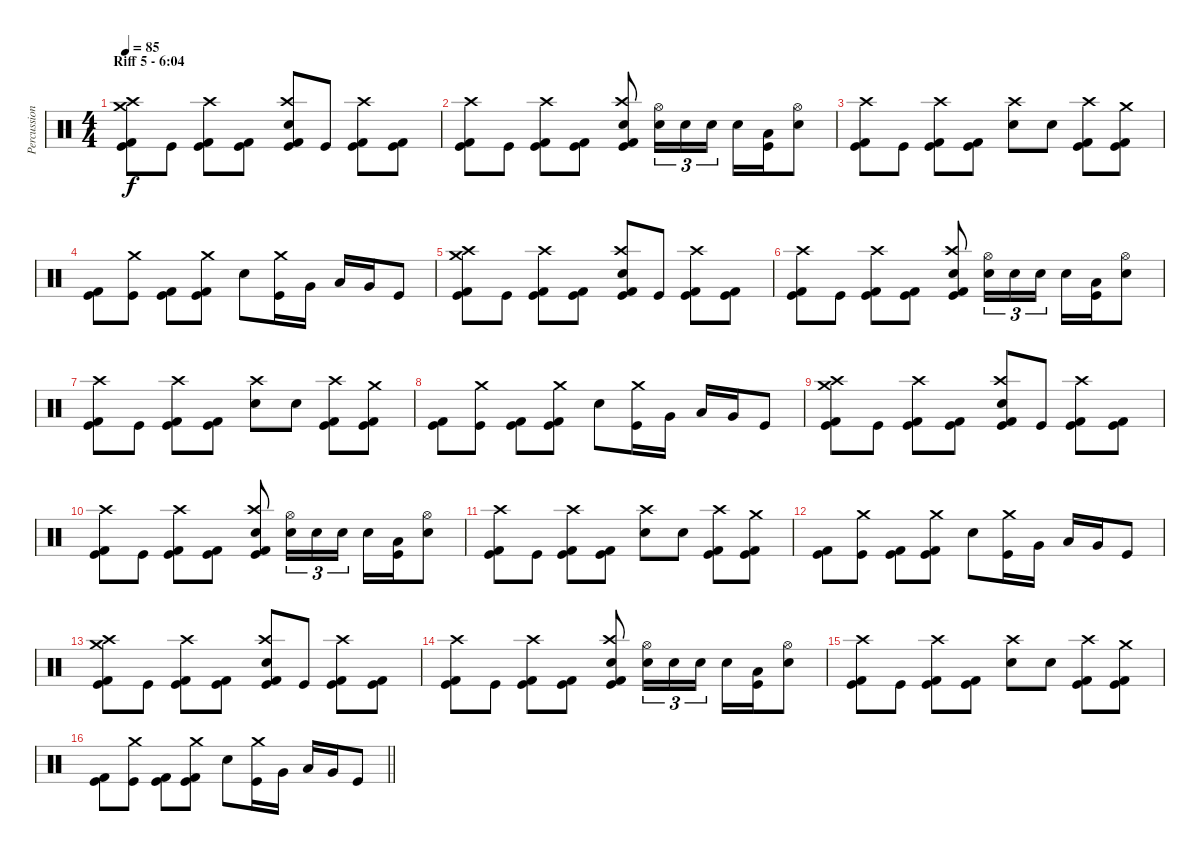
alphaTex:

\track ("Percussion" "Percussion") {instrument percussion}
\staff {score}
\articulation defaults
\ts (4 4)
\section ("" "Riff 5 - 6:04")
\tempo 85
\clef neutral
\ks c
("Kick (hit)" "Kick (hit) 2" "Crash high (hit)" "Crash medium (hit)").8{dy f} "Kick (hit)".8 ("Kick (hit)" "Kick (hit) 2" "Crash high (hit)").8 ("Kick (hit)" "Kick (hit) 2").8 ("Kick (hit)" "Kick (hit) 2" "Snare (hit) 2" "Crash high (hit)").8 "Kick (hit)".8 ("Kick (hit)" "Kick (hit) 2" "Crash high (hit)").8 ("Kick (hit)" "Kick (hit) 2").8 |
("Kick (hit)" "Kick (hit) 2" "Crash high (hit)").8 "Kick (hit)".8 ("Kick (hit)" "Kick (hit) 2" "Crash high (hit)").8 ("Kick (hit)" "Kick (hit) 2").8 ("Kick (hit)" "Kick (hit) 2" "Snare (hit) 2" "Crash high (hit)").8 ("Snare (hit) 2" "Hi-Hat (open)").16{tu (3 2)} "Snare (hit) 2".16{tu (3 2)} "Snare (hit) 2".16{tu (3 2)} "Snare (hit) 2".16 ("Kick (hit)" "Low Tom (hit)").16 ("Snare (hit) 2" "Hi-Hat (open)").8 |
("Kick (hit)" "Kick (hit) 2" "Crash high (hit)").8 "Kick (hit)".8 ("Kick (hit)" "Kick (hit) 2" "Crash high (hit)").8 ("Kick (hit)" "Kick (hit) 2").8 ("Snare (hit) 2" "Crash high (hit)").8 "Snare (hit) 2".8 ("Kick (hit)" "Kick (hit) 2" "Crash high (hit)").8 ("Kick (hit)" "Kick (hit) 2" "Crash medium (hit)").8 |
("Kick (hit)" "Kick (hit) 2").8 ("Kick (hit)" "Crash medium (hit)").8 ("Kick (hit)" "Kick (hit) 2").8 ("Kick (hit)" "Kick (hit) 2" "Crash medium (hit)").8 "Snare (hit) 2".8 ("Kick (hit)" "Crash medium (hit)").16 "Very Low Tom (hit)".16 "Low Floor Tom (hit)".16 "Very Low Tom (hit)".16 "Kick (hit)".8 |
("Kick (hit)" "Kick (hit) 2" "Crash high (hit)" "Crash medium (hit)").8 "Kick (hit)".8 ("Kick (hit)" "Kick (hit) 2" "Crash high (hit)").8 ("Kick (hit)" "Kick (hit) 2").8 ("Kick (hit)" "Kick (hit) 2" "Snare (hit) 2" "Crash high (hit)").8 "Kick (hit)".8 ("Kick (hit)" "Kick (hit) 2" "Crash high (hit)").8 ("Kick (hit)" "Kick (hit) 2").8 |
("Kick (hit)" "Kick (hit) 2" "Crash high (hit)").8 "Kick (hit)".8 ("Kick (hit)" "Kick (hit) 2" "Crash high (hit)").8 ("Kick (hit)" "Kick (hit) 2").8 ("Kick (hit)" "Kick (hit) 2" "Snare (hit) 2" "Crash high (hit)").8 ("Snare (hit) 2" "Hi-Hat (open)").16{tu (3 2)} "Snare (hit) 2".16{tu (3 2)} "Snare (hit) 2".16{tu (3 2)} "Snare (hit) 2".16 ("Kick (hit)" "Low Tom (hit)").16 ("Snare (hit) 2" "Hi-Hat (open)").8 |
("Kick (hit)" "Kick (hit) 2" "Crash high (hit)").8 "Kick (hit)".8 ("Kick (hit)" "Kick (hit) 2" "Crash high (hit)").8 ("Kick (hit)" "Kick (hit) 2").8 ("Snare (hit) 2" "Crash high (hit)").8 "Snare (hit) 2".8 ("Kick (hit)" "Kick (hit) 2" "Crash high (hit)").8 ("Kick (hit)" "Kick (hit) 2" "Crash medium (hit)").8 |
("Kick (hit)" "Kick (hit) 2").8 ("Kick (hit)" "Crash medium (hit)").8 ("Kick (hit)" "Kick (hit) 2").8 ("Kick (hit)" "Kick (hit) 2" "Crash medium (hit)").8 "Snare (hit) 2".8 ("Kick (hit)" "Crash medium (hit)").16 "Very Low Tom (hit)".16 "Low Floor Tom (hit)".16 "Very Low Tom (hit)".16 "Kick (hit)".8 |
("Kick (hit)" "Kick (hit) 2" "Crash high (hit)" "Crash medium (hit)").8 "Kick (hit)".8 ("Kick (hit)" "Kick (hit) 2" "Crash high (hit)").8 ("Kick (hit)" "Kick (hit) 2").8 ("Kick (hit)" "Kick (hit) 2" "Snare (hit) 2" "Crash high (hit)").8 "Kick (hit)".8 ("Kick (hit)" "Kick (hit) 2" "Crash high (hit)").8 ("Kick (hit)" "Kick (hit) 2").8 |
("Kick (hit)" "Kick (hit) 2" "Crash high (hit)").8 "Kick (hit)".8 ("Kick (hit)" "Kick (hit) 2" "Crash high (hit)").8 ("Kick (hit)" "Kick (hit) 2").8 ("Kick (hit)" "Kick (hit) 2" "Snare (hit) 2" "Crash high (hit)").8 ("Snare (hit) 2" "Hi-Hat (open)").16{tu (3 2)} "Snare (hit) 2".16{tu (3 2)} "Snare (hit) 2".16{tu (3 2)} "Snare (hit) 2".16 ("Kick (hit)" "Low Tom (hit)").16 ("Snare (hit) 2" "Hi-Hat (open)").8 |
("Kick (hit)" "Kick (hit) 2" "Crash high (hit)").8 "Kick (hit)".8 ("Kick (hit)" "Kick (hit) 2" "Crash high (hit)").8 ("Kick (hit)" "Kick (hit) 2").8 ("Snare (hit) 2" "Crash high (hit)").8 "Snare (hit) 2".8 ("Kick (hit)" "Kick (hit) 2" "Crash high (hit)").8 ("Kick (hit)" "Kick (hit) 2" "Crash medium (hit)").8 |
("Kick (hit)" "Kick (hit) 2").8 ("Kick (hit)" "Crash medium (hit)").8 ("Kick (hit)" "Kick (hit) 2").8 ("Kick (hit)" "Kick (hit) 2" "Crash medium (hit)").8 "Snare (hit) 2".8 ("Kick (hit)" "Crash medium (hit)").16 "Very Low Tom (hit)".16 "Low Floor Tom (hit)".16 "Very Low Tom (hit)".16 "Kick (hit)".8 |
("Kick (hit)" "Kick (hit) 2" "Crash high (hit)" "Crash medium (hit)").8 "Kick (hit)".8 ("Kick (hit)" "Kick (hit) 2" "Crash high (hit)").8 ("Kick (hit)" "Kick (hit) 2").8 ("Kick (hit)" "Kick (hit) 2" "Snare (hit) 2" "Crash high (hit)").8 "Kick (hit)".8 ("Kick (hit)" "Kick (hit) 2" "Crash high (hit)").8 ("Kick (hit)" "Kick (hit) 2").8 |
("Kick (hit)" "Kick (hit) 2" "Crash high (hit)").8 "Kick (hit)".8 ("Kick (hit)" "Kick (hit) 2" "Crash high (hit)").8 ("Kick (hit)" "Kick (hit) 2").8 ("Kick (hit)" "Kick (hit) 2" "Snare (hit) 2" "Crash high (hit)").8 ("Snare (hit) 2" "Hi-Hat (open)").16{tu (3 2)} "Snare (hit) 2".16{tu (3 2)} "Snare (hit) 2".16{tu (3 2)} "Snare (hit) 2".16 ("Kick (hit)" "Low Tom (hit)").16 ("Snare (hit) 2" "Hi-Hat (open)").8 |
("Kick (hit)" "Kick (hit) 2" "Crash high (hit)").8 "Kick (hit)".8 ("Kick (hit)" "Kick (hit) 2" "Crash high (hit)").8 ("Kick (hit)" "Kick (hit) 2").8 ("Snare (hit) 2" "Crash high (hit)").8 "Snare (hit) 2".8 ("Kick (hit)" "Kick (hit) 2" "Crash high (hit)").8 ("Kick (hit)" "Kick (hit) 2" "Crash medium (hit)").8 |
\barLineRight lightlight
("Kick (hit)" "Kick (hit) 2").8 ("Kick (hit)" "Crash medium (hit)").8 ("Kick (hit)" "Kick (hit) 2").8 ("Kick (hit)" "Kick (hit) 2" "Crash medium (hit)").8 "Snare (hit) 2".8 ("Kick (hit)" "Crash medium (hit)").16 "Very Low Tom (hit)".16 "Low Floor Tom (hit)".16 "Very Low Tom (hit)".16 "Kick (hit)".8
